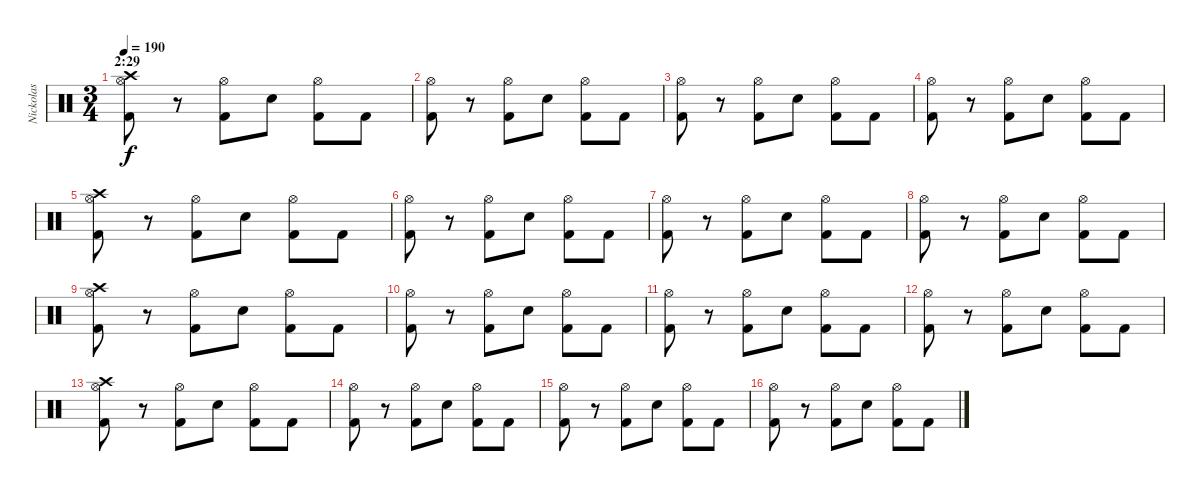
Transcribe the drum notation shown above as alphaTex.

\track ("Nickolas " "Nickolas ") {instrument percussion}
\staff {score}
\articulation defaults
\ts (3 4)
\section ("" "2:29")
\tempo 190
\clef neutral
\ks c
("Kick (hit) 2" "Crash high (hit)" "Hi-Hat (open)").8{dy f} r.8 ("Kick (hit) 2" "Hi-Hat (open)").8 "Snare (hit) 2".8 ("Kick (hit) 2" "Hi-Hat (open)").8 "Kick (hit) 2".8 |
("Kick (hit) 2" "Hi-Hat (open)").8 r.8 ("Kick (hit) 2" "Hi-Hat (open)").8 "Snare (hit) 2".8 ("Kick (hit) 2" "Hi-Hat (open)").8 "Kick (hit) 2".8 |
("Kick (hit) 2" "Hi-Hat (open)").8 r.8 ("Kick (hit) 2" "Hi-Hat (open)").8 "Snare (hit) 2".8 ("Kick (hit) 2" "Hi-Hat (open)").8 "Kick (hit) 2".8 |
("Kick (hit) 2" "Hi-Hat (open)").8 r.8 ("Kick (hit) 2" "Hi-Hat (open)").8 "Snare (hit) 2".8 ("Kick (hit) 2" "Hi-Hat (open)").8 "Kick (hit) 2".8 |
("Kick (hit) 2" "Crash high (hit)" "Hi-Hat (open)").8 r.8 ("Kick (hit) 2" "Hi-Hat (open)").8 "Snare (hit) 2".8 ("Kick (hit) 2" "Hi-Hat (open)").8 "Kick (hit) 2".8 |
("Kick (hit) 2" "Hi-Hat (open)").8 r.8 ("Kick (hit) 2" "Hi-Hat (open)").8 "Snare (hit) 2".8 ("Kick (hit) 2" "Hi-Hat (open)").8 "Kick (hit) 2".8 |
("Kick (hit) 2" "Hi-Hat (open)").8 r.8 ("Kick (hit) 2" "Hi-Hat (open)").8 "Snare (hit) 2".8 ("Kick (hit) 2" "Hi-Hat (open)").8 "Kick (hit) 2".8 |
("Kick (hit) 2" "Hi-Hat (open)").8 r.8 ("Kick (hit) 2" "Hi-Hat (open)").8 "Snare (hit) 2".8 ("Kick (hit) 2" "Hi-Hat (open)").8 "Kick (hit) 2".8 |
("Kick (hit) 2" "Crash high (hit)" "Hi-Hat (open)").8 r.8 ("Kick (hit) 2" "Hi-Hat (open)").8 "Snare (hit) 2".8 ("Kick (hit) 2" "Hi-Hat (open)").8 "Kick (hit) 2".8 |
("Kick (hit) 2" "Hi-Hat (open)").8 r.8 ("Kick (hit) 2" "Hi-Hat (open)").8 "Snare (hit) 2".8 ("Kick (hit) 2" "Hi-Hat (open)").8 "Kick (hit) 2".8 |
("Kick (hit) 2" "Hi-Hat (open)").8 r.8 ("Kick (hit) 2" "Hi-Hat (open)").8 "Snare (hit) 2".8 ("Kick (hit) 2" "Hi-Hat (open)").8 "Kick (hit) 2".8 |
("Kick (hit) 2" "Hi-Hat (open)").8 r.8 ("Kick (hit) 2" "Hi-Hat (open)").8 "Snare (hit) 2".8 ("Kick (hit) 2" "Hi-Hat (open)").8 "Kick (hit) 2".8 |
("Kick (hit) 2" "Crash high (hit)" "Hi-Hat (open)").8 r.8 ("Kick (hit) 2" "Hi-Hat (open)").8 "Snare (hit) 2".8 ("Kick (hit) 2" "Hi-Hat (open)").8 "Kick (hit) 2".8 |
("Kick (hit) 2" "Hi-Hat (open)").8 r.8 ("Kick (hit) 2" "Hi-Hat (open)").8 "Snare (hit) 2".8 ("Kick (hit) 2" "Hi-Hat (open)").8 "Kick (hit) 2".8 |
("Kick (hit) 2" "Hi-Hat (open)").8 r.8 ("Kick (hit) 2" "Hi-Hat (open)").8 "Snare (hit) 2".8 ("Kick (hit) 2" "Hi-Hat (open)").8 "Kick (hit) 2".8 |
("Kick (hit) 2" "Hi-Hat (open)").8 r.8 ("Kick (hit) 2" "Hi-Hat (open)").8 "Snare (hit) 2".8 ("Kick (hit) 2" "Hi-Hat (open)").8 "Kick (hit) 2".8
